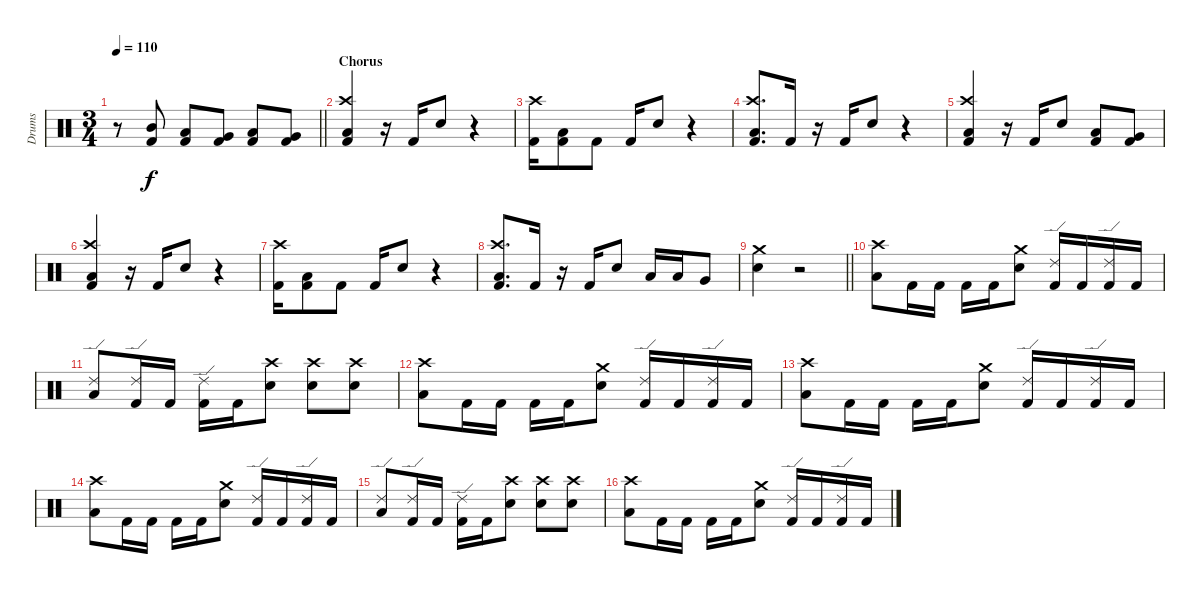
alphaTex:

\track ("Drums" "Drums") {instrument percussion}
\staff {score}
\articulation defaults
\ts (3 4)
\tempo 110
\clef neutral
\barLineRight lightlight
\ks c
r.8{dy f} ("Mid Tom (hit)" "Kick (hit) 2").8 ("Low Tom (hit)" "Kick (hit) 2").8 ("Very Low Tom (hit)" "Kick (hit) 2").8 ("Low Tom (hit)" "Kick (hit) 2").8 ("Very Low Tom (hit)" "Kick (hit) 2").8 |
\section ("" "Chorus")
("Crash high (hit)" "Low Floor Tom (hit)" "Kick (hit) 2").4 r.16 "Kick (hit) 2".16 "Snare (hit) 2".8 r.4 |
("Crash high (hit)" "Kick (hit) 2").16 ("Low Floor Tom (hit)" "Kick (hit) 2").8 "Kick (hit) 2".8 "Kick (hit) 2".16 "Snare (hit) 2".8 r.4 |
("Crash high (hit)" "Low Floor Tom (hit)" "Kick (hit) 2").8{d} "Kick (hit) 2".16 r.16 "Kick (hit) 2".16 "Snare (hit) 2".8 r.4 |
("Crash high (hit)" "Low Floor Tom (hit)" "Kick (hit) 2").4 r.16 "Kick (hit) 2".16 "Snare (hit) 2".8 ("Low Tom (hit)" "Kick (hit) 2").8 ("Very Low Tom (hit)" "Kick (hit) 2").8 |
("Crash high (hit)" "Low Floor Tom (hit)" "Kick (hit) 2").4 r.16 "Kick (hit) 2".16 "Snare (hit) 2".8 r.4 |
("Crash high (hit)" "Kick (hit) 2").16 ("Low Floor Tom (hit)" "Kick (hit) 2").8 "Kick (hit) 2".8 "Kick (hit) 2".16 "Snare (hit) 2".8 r.4 |
("Crash high (hit)" "Low Floor Tom (hit)" "Kick (hit) 2").8{d} "Kick (hit) 2".16 r.16 "Kick (hit) 2".16 "Snare (hit) 2".8 "Low Tom (hit)".16 "Low Tom (hit)".16 "Very Low Tom (hit)".8 |
\barLineRight lightlight
("Crash medium (hit)" "Snare (hit) 2").4 r.2 |
("Crash high (hit)" "Low Floor Tom (hit)").8 "Kick (hit) 2".16 "Kick (hit) 2".16 "Kick (hit) 2".16 "Kick (hit) 2".16 ("Crash medium (hit)" "Snare (hit) 2").8 ("Ride (edge) 2" "Kick (hit) 2").16 "Kick (hit) 2".16 ("Ride (edge) 2" "Kick (hit) 2").16 "Kick (hit) 2".16 |
("Ride (edge) 2" "Low Floor Tom (hit)").8 ("Ride (edge) 2" "Kick (hit) 2").16 "Kick (hit) 2".16 ("Ride (edge) 2" "Kick (hit) 2").16 "Kick (hit) 2".16 ("Crash high (hit)" "Snare (hit) 2").8 ("Crash high (hit)" "Snare (hit) 2").8 ("Crash high (hit)" "Snare (hit) 2").8 |
("Crash high (hit)" "Low Floor Tom (hit)").8 "Kick (hit) 2".16 "Kick (hit) 2".16 "Kick (hit) 2".16 "Kick (hit) 2".16 ("Crash medium (hit)" "Snare (hit) 2").8 ("Ride (edge) 2" "Kick (hit) 2").16 "Kick (hit) 2".16 ("Ride (edge) 2" "Kick (hit) 2").16 "Kick (hit) 2".16 |
("Crash high (hit)" "Low Floor Tom (hit)").8 "Kick (hit) 2".16 "Kick (hit) 2".16 "Kick (hit) 2".16 "Kick (hit) 2".16 ("Crash medium (hit)" "Snare (hit) 2").8 ("Ride (edge) 2" "Kick (hit) 2").16 "Kick (hit) 2".16 ("Ride (edge) 2" "Kick (hit) 2").16 "Kick (hit) 2".16 |
("Crash high (hit)" "Low Floor Tom (hit)").8 "Kick (hit) 2".16 "Kick (hit) 2".16 "Kick (hit) 2".16 "Kick (hit) 2".16 ("Crash medium (hit)" "Snare (hit) 2").8 ("Ride (edge) 2" "Kick (hit) 2").16 "Kick (hit) 2".16 ("Ride (edge) 2" "Kick (hit) 2").16 "Kick (hit) 2".16 |
("Ride (edge) 2" "Low Floor Tom (hit)").8 ("Ride (edge) 2" "Kick (hit) 2").16 "Kick (hit) 2".16 ("Ride (edge) 2" "Kick (hit) 2").16 "Kick (hit) 2".16 ("Crash high (hit)" "Snare (hit) 2").8 ("Crash high (hit)" "Snare (hit) 2").8 ("Crash high (hit)" "Snare (hit) 2").8 |
("Crash high (hit)" "Low Floor Tom (hit)").8 "Kick (hit) 2".16 "Kick (hit) 2".16 "Kick (hit) 2".16 "Kick (hit) 2".16 ("Crash medium (hit)" "Snare (hit) 2").8 ("Ride (edge) 2" "Kick (hit) 2").16 "Kick (hit) 2".16 ("Ride (edge) 2" "Kick (hit) 2").16 "Kick (hit) 2".16
